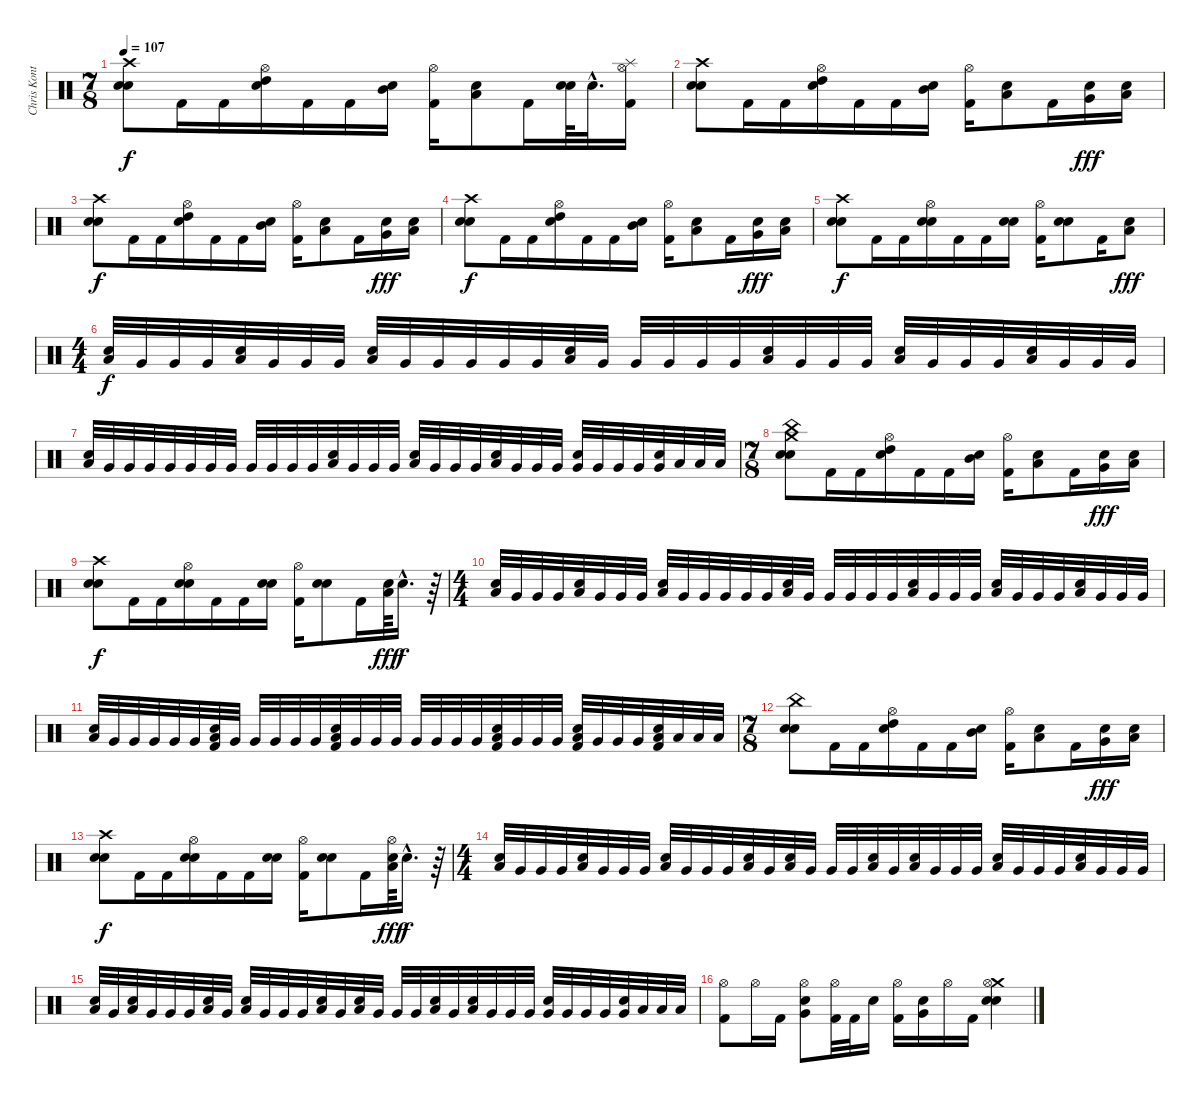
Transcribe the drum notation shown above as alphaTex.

\track ("Chris Kontos" "Chris Kont") {instrument percussion}
\staff {score}
\articulation defaults
\ts (7 8)
\tempo 107
\clef neutral
\ks c
("Crash high (hit)" "Snare (hit) 2" "Electric Snare (hit)").8{dy f} "Kick (hit) 2".16 "Kick (hit) 2".16 ("High Tom (hit)" "Hi-Hat (open)" "Snare (hit) 2").16 "Kick (hit) 2".16 "Kick (hit) 2".16 ("Mid Tom (hit)" "Snare (hit) 2").16 ("Hi-Hat (open)" "Kick (hit) 2").16 ("Low Tom (hit)" "Snare (hit) 2").8 "Kick (hit) 2".16 ("Snare (hit) 2" "Electric Snare (hit)").64 "Electric Snare (hit)"{hac}.32{d} ("Splash (hit)" "Hi-Hat (open)" "Kick (hit) 2").16 |
("Crash high (hit)" "Snare (hit) 2" "Electric Snare (hit)").8 "Kick (hit) 2".16 "Kick (hit) 2".16 ("High Tom (hit)" "Hi-Hat (open)" "Electric Snare (hit)").16 "Kick (hit) 2".16 "Kick (hit) 2".16 ("Mid Tom (hit)" "Snare (hit) 2").16 ("Hi-Hat (open)" "Kick (hit) 2").16 ("Low Tom (hit)" "Electric Snare (hit)").8 "Kick (hit) 2".16 ("Very Low Tom (hit)" "Snare (hit) 2").16{dy fff} ("Low Floor Tom (hit)" "Snare (hit) 2").16 |
("Crash high (hit)" "Snare (hit) 2" "Electric Snare (hit)").8{dy f} "Kick (hit) 2".16 "Kick (hit) 2".16 ("High Tom (hit)" "Hi-Hat (open)" "Electric Snare (hit)").16 "Kick (hit) 2".16 "Kick (hit) 2".16 ("Mid Tom (hit)" "Snare (hit) 2").16 ("Hi-Hat (open)" "Kick (hit) 2").16 ("Low Tom (hit)" "Electric Snare (hit)").8 "Kick (hit) 2".16 ("Very Low Tom (hit)" "Snare (hit) 2").16{dy fff} ("Low Floor Tom (hit)" "Snare (hit) 2").16 |
("Crash high (hit)" "Snare (hit) 2" "Electric Snare (hit)").8{dy f} "Kick (hit) 2".16 "Kick (hit) 2".16 ("High Tom (hit)" "Hi-Hat (open)" "Electric Snare (hit)").16 "Kick (hit) 2".16 "Kick (hit) 2".16 ("Mid Tom (hit)" "Snare (hit) 2").16 ("Hi-Hat (open)" "Kick (hit) 2").16 ("Low Tom (hit)" "Electric Snare (hit)").8 "Kick (hit) 2".16 ("Very Low Tom (hit)" "Snare (hit) 2").16{dy fff} ("Low Floor Tom (hit)" "Snare (hit) 2").16 |
("Crash high (hit)" "Snare (hit) 2" "Electric Snare (hit)").8{dy f} "Kick (hit) 2".16 "Kick (hit) 2".16 ("Snare (hit) 2" "Hi-Hat (open)" "Electric Snare (hit)").16 "Kick (hit) 2".16 "Kick (hit) 2".16 ("Snare (hit) 2" "Snare (hit) 2").16 ("Hi-Hat (open)" "Kick (hit) 2").16 ("Snare (hit) 2" "Electric Snare (hit)").8 "Kick (hit) 2".16 ("Low Floor Tom (hit)" "Snare (hit) 2").8{dy fff} |
\ts (4 4)
("Low Tom (hit)" "Snare (hit) 2").32{dy f} "Very Low Tom (hit)".32 "Very Low Tom (hit)".32 "Very Low Tom (hit)".32 ("Low Tom (hit)" "Snare (hit) 2").32 "Very Low Tom (hit)".32 "Very Low Tom (hit)".32 "Very Low Tom (hit)".32 ("Low Tom (hit)" "Snare (hit) 2").32 "Very Low Tom (hit)".32 "Very Low Tom (hit)".32 "Very Low Tom (hit)".32 "Very Low Tom (hit)".32 "Very Low Tom (hit)".32 ("Low Tom (hit)" "Snare (hit) 2").32 "Very Low Tom (hit)".32 "Very Low Tom (hit)".32 "Very Low Tom (hit)".32 "Very Low Tom (hit)".32 "Very Low Tom (hit)".32 ("Low Tom (hit)" "Snare (hit) 2").32 "Very Low Tom (hit)".32 "Very Low Tom (hit)".32 "Very Low Tom (hit)".32 ("Low Tom (hit)" "Snare (hit) 2").32 "Very Low Tom (hit)".32 "Very Low Tom (hit)".32 "Very Low Tom (hit)".32 ("Low Tom (hit)" "Snare (hit) 2").32 "Very Low Tom (hit)".32 "Very Low Tom (hit)".32 "Very Low Tom (hit)".32 |
("Low Tom (hit)" "Snare (hit) 2").32 "Very Low Tom (hit)".32 "Very Low Tom (hit)".32 "Very Low Tom (hit)".32 "Very Low Tom (hit)".32 "Very Low Tom (hit)".32 "Very Low Tom (hit)".32 "Very Low Tom (hit)".32 "Very Low Tom (hit)".32 "Very Low Tom (hit)".32 "Very Low Tom (hit)".32 "Very Low Tom (hit)".32 ("Low Tom (hit)" "Snare (hit) 2").32 "Very Low Tom (hit)".32 "Very Low Tom (hit)".32 "Very Low Tom (hit)".32 ("Low Tom (hit)" "Snare (hit) 2").32 "Very Low Tom (hit)".32 "Very Low Tom (hit)".32 "Very Low Tom (hit)".32 ("Low Tom (hit)" "Snare (hit) 2").32 "Very Low Tom (hit)".32 "Very Low Tom (hit)".32 "Very Low Tom (hit)".32 ("Very Low Tom (hit)" "Snare (hit) 2").32 "Very Low Tom (hit)".32 "Very Low Tom (hit)".32 "Very Low Tom (hit)".32 ("Very Low Tom (hit)" "Snare (hit) 2").32 "Low Floor Tom (hit)".32 "Low Floor Tom (hit)".32 "Low Floor Tom (hit)".32 |
\ts (7 8)
("China (hit)" "Snare (hit) 2" "Crash medium (hit)" "Electric Snare (hit)").8 "Kick (hit) 2".16 "Kick (hit) 2".16 ("High Tom (hit)" "Hi-Hat (open)" "Electric Snare (hit)").16 "Kick (hit) 2".16 "Kick (hit) 2".16 ("Mid Tom (hit)" "Snare (hit) 2").16 ("Hi-Hat (open)" "Kick (hit) 2").16 ("Low Tom (hit)" "Electric Snare (hit)").8 "Kick (hit) 2".16 ("Very Low Tom (hit)" "Snare (hit) 2").16{dy fff} ("Low Floor Tom (hit)" "Snare (hit) 2").16 |
("Crash high (hit)" "Snare (hit) 2" "Electric Snare (hit)").8{dy f} "Kick (hit) 2".16 "Kick (hit) 2".16 ("Snare (hit) 2" "Hi-Hat (open)" "Electric Snare (hit)").16 "Kick (hit) 2".16 "Kick (hit) 2".16 ("Snare (hit) 2" "Snare (hit) 2").16 ("Hi-Hat (open)" "Kick (hit) 2").16 ("Snare (hit) 2" "Electric Snare (hit)").8 "Kick (hit) 2".16 ("Low Floor Tom (hit)" "Electric Snare (hit)").64{dy fff} "Snare (hit) 2"{hac}.16{d dy f} r.64 |
\ts (4 4)
("Low Tom (hit)" "Snare (hit) 2").32 "Very Low Tom (hit)".32 "Very Low Tom (hit)".32 "Very Low Tom (hit)".32 ("Low Tom (hit)" "Snare (hit) 2").32 "Very Low Tom (hit)".32 "Very Low Tom (hit)".32 "Very Low Tom (hit)".32 ("Low Tom (hit)" "Snare (hit) 2").32 "Very Low Tom (hit)".32 "Very Low Tom (hit)".32 "Very Low Tom (hit)".32 "Very Low Tom (hit)".32 "Very Low Tom (hit)".32 ("Low Tom (hit)" "Snare (hit) 2").32 "Very Low Tom (hit)".32 "Very Low Tom (hit)".32 "Very Low Tom (hit)".32 "Very Low Tom (hit)".32 "Very Low Tom (hit)".32 ("Low Tom (hit)" "Snare (hit) 2").32 "Very Low Tom (hit)".32 "Very Low Tom (hit)".32 "Very Low Tom (hit)".32 ("Low Tom (hit)" "Snare (hit) 2").32 "Very Low Tom (hit)".32 "Very Low Tom (hit)".32 "Very Low Tom (hit)".32 ("Low Tom (hit)" "Snare (hit) 2").32 "Very Low Tom (hit)".32 "Very Low Tom (hit)".32 "Very Low Tom (hit)".32 |
("Low Floor Tom (hit)" "Snare (hit) 2").32 "Very Low Tom (hit)".32 "Very Low Tom (hit)".32 "Very Low Tom (hit)".32 "Very Low Tom (hit)".32 "Very Low Tom (hit)".32 ("Low Floor Tom (hit)" "Snare (hit) 2" "Kick (hit) 2").32 "Very Low Tom (hit)".32 "Very Low Tom (hit)".32 "Very Low Tom (hit)".32 "Very Low Tom (hit)".32 "Very Low Tom (hit)".32 ("Low Floor Tom (hit)" "Snare (hit) 2" "Kick (hit) 2").32 "Very Low Tom (hit)".32 "Very Low Tom (hit)".32 "Very Low Tom (hit)".32 "Very Low Tom (hit)".32 "Very Low Tom (hit)".32 "Very Low Tom (hit)".32 "Very Low Tom (hit)".32 ("Low Floor Tom (hit)" "Snare (hit) 2" "Kick (hit) 2").32 "Very Low Tom (hit)".32 "Very Low Tom (hit)".32 "Very Low Tom (hit)".32 ("Low Floor Tom (hit)" "Snare (hit) 2" "Kick (hit) 2").32 "Very Low Tom (hit)".32 "Very Low Tom (hit)".32 "Very Low Tom (hit)".32 ("Low Floor Tom (hit)" "Snare (hit) 2" "Kick (hit) 2").32 "Low Floor Tom (hit)".32 "Low Floor Tom (hit)".32 "Low Floor Tom (hit)".32 |
\ts (7 8)
("China (hit)" "Snare (hit) 2" "Electric Snare (hit)").8 "Kick (hit) 2".16 "Kick (hit) 2".16 ("High Tom (hit)" "Hi-Hat (open)" "Electric Snare (hit)").16 "Kick (hit) 2".16 "Kick (hit) 2".16 ("Mid Tom (hit)" "Snare (hit) 2").16 ("Hi-Hat (open)" "Kick (hit) 2").16 ("Low Tom (hit)" "Electric Snare (hit)").8 "Kick (hit) 2".16 ("Very Low Tom (hit)" "Snare (hit) 2").16{dy fff} ("Low Floor Tom (hit)" "Snare (hit) 2").16 |
("Crash high (hit)" "Snare (hit) 2" "Electric Snare (hit)").8{dy f} "Kick (hit) 2".16 "Kick (hit) 2".16 ("Snare (hit) 2" "Hi-Hat (open)" "Electric Snare (hit)").16 "Kick (hit) 2".16 "Kick (hit) 2".16 ("Snare (hit) 2" "Snare (hit) 2").16 ("Hi-Hat (open)" "Kick (hit) 2").16 ("Snare (hit) 2" "Electric Snare (hit)").8 "Kick (hit) 2".16 ("Low Floor Tom (hit)" "Hi-Hat (open)" "Electric Snare (hit)").64{dy fff} "Snare (hit) 2"{hac}.16{d dy f} r.64 |
\ts (4 4)
("Low Tom (hit)" "Snare (hit) 2").32 "Very Low Tom (hit)".32 "Very Low Tom (hit)".32 "Very Low Tom (hit)".32 ("Low Tom (hit)" "Snare (hit) 2").32 "Very Low Tom (hit)".32 "Very Low Tom (hit)".32 "Very Low Tom (hit)".32 ("Low Tom (hit)" "Snare (hit) 2").32 "Very Low Tom (hit)".32 "Very Low Tom (hit)".32 "Very Low Tom (hit)".32 ("Low Tom (hit)" "Snare (hit) 2").32 "Very Low Tom (hit)".32 ("Low Tom (hit)" "Snare (hit) 2").32 "Very Low Tom (hit)".32 "Very Low Tom (hit)".32 "Very Low Tom (hit)".32 ("Low Tom (hit)" "Snare (hit) 2").32 "Very Low Tom (hit)".32 ("Low Tom (hit)" "Snare (hit) 2").32 "Very Low Tom (hit)".32 "Very Low Tom (hit)".32 "Very Low Tom (hit)".32 ("Low Tom (hit)" "Snare (hit) 2").32 "Very Low Tom (hit)".32 "Very Low Tom (hit)".32 "Very Low Tom (hit)".32 ("Low Tom (hit)" "Snare (hit) 2").32 "Very Low Tom (hit)".32 "Very Low Tom (hit)".32 "Very Low Tom (hit)".32 |
("Low Tom (hit)" "Snare (hit) 2").32 "Very Low Tom (hit)".32 ("Low Tom (hit)" "Snare (hit) 2").32 "Very Low Tom (hit)".32 "Very Low Tom (hit)".32 "Very Low Tom (hit)".32 ("Low Tom (hit)" "Snare (hit) 2").32 "Very Low Tom (hit)".32 ("Low Tom (hit)" "Snare (hit) 2").32 "Very Low Tom (hit)".32 "Very Low Tom (hit)".32 "Very Low Tom (hit)".32 ("Low Tom (hit)" "Snare (hit) 2").32 "Very Low Tom (hit)".32 ("Low Tom (hit)" "Snare (hit) 2").32 "Very Low Tom (hit)".32 "Very Low Tom (hit)".32 "Very Low Tom (hit)".32 ("Low Tom (hit)" "Snare (hit) 2").32 "Very Low Tom (hit)".32 ("Low Tom (hit)" "Snare (hit) 2").32 "Very Low Tom (hit)".32 "Very Low Tom (hit)".32 "Very Low Tom (hit)".32 ("Very Low Tom (hit)" "Snare (hit) 2").32 "Very Low Tom (hit)".32 "Very Low Tom (hit)".32 "Very Low Tom (hit)".32 ("Very Low Tom (hit)" "Snare (hit) 2").32 "Low Floor Tom (hit)".32 "Low Floor Tom (hit)".32 "Low Floor Tom (hit)".32 |
("Hi-Hat (open)" "Kick (hit) 2").8 "Hi-Hat (open)".16 "Kick (hit) 2".16 ("Very Low Tom (hit)" "Hi-Hat (open)" "Electric Snare (hit)").8 ("Hi-Hat (open)" "Kick (hit) 2").32 "Kick (hit) 2".32 "Electric Snare (hit)".16 ("Hi-Hat (open)" "Kick (hit) 2").16 ("Very Low Tom (hit)" "Electric Snare (hit)").16 "Hi-Hat (open)".16 "Kick (hit) 2".16 ("Snare (hit) 2" "Crash medium (hit)" "Hi-Hat (open)" "Electric Snare (hit)").4
